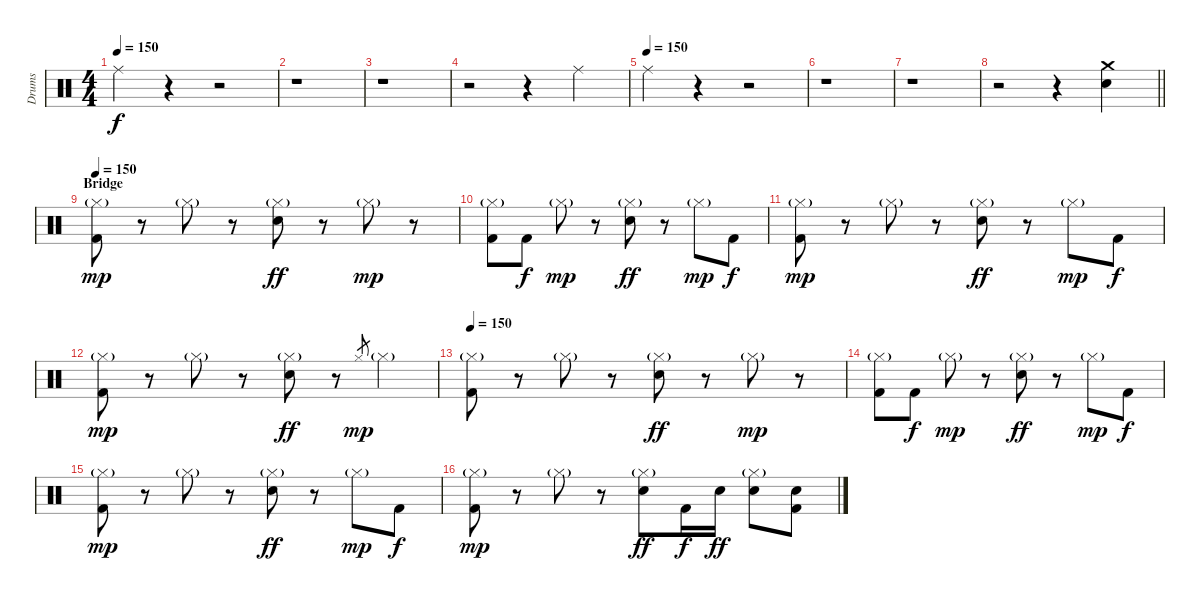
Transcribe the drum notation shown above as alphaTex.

\track ("Drums" "Drums") {instrument percussion}
\staff {score}
\articulation defaults
\ts (4 4)
\tempo 150
\clef neutral
\ks c "Ride (middle)".4{dy f}
r.4 r.2 |
r.1 |
r.1 |
r.2 r.4 "Ride (middle)".4 |
\tempo (150)
"Ride (middle)".4 r.4 r.2 |
r.1 |
r.1 |
\barLineRight lightlight
r.2 r.4 ("Crash medium (hit)" "Electric Snare (hit)").4 |
\section ("" "Bridge")
\tempo 150
("Hi-Hat (closed)"{g} "Kick (hit) 2").8{dy mp} r.8 "Hi-Hat (closed)"{g}.8 r.8 ("Hi-Hat (closed)"{g} "Electric Snare (hit)").8{dy ff} r.8 "Hi-Hat (closed)"{g}.8{dy mp} r.8 |
("Hi-Hat (closed)"{g} "Kick (hit) 2").8 "Kick (hit) 2".8{dy f} "Hi-Hat (closed)"{g}.8{dy mp} r.8 ("Hi-Hat (closed)"{g} "Electric Snare (hit)").8{dy ff} r.8 "Hi-Hat (closed)"{g}.8{dy mp} "Kick (hit) 2".8{dy f} |
("Hi-Hat (closed)"{g} "Kick (hit) 2").8{dy mp} r.8 "Hi-Hat (closed)"{g}.8 r.8 ("Hi-Hat (closed)"{g} "Electric Snare (hit)").8{dy ff} r.8 "Hi-Hat (closed)"{g}.8{dy mp} "Kick (hit) 2".8{dy f} |
("Hi-Hat (closed)"{g} "Kick (hit) 2").8{dy mp} r.8 "Hi-Hat (closed)"{g}.8 r.8 ("Hi-Hat (closed)"{g} "Electric Snare (hit)").8{dy ff} r.8 "Hi-Hat (closed)".8{gr dy mp} "Hi-Hat (closed)"{g}.4 |
\tempo 150
("Hi-Hat (closed)"{g} "Kick (hit) 2").8 r.8 "Hi-Hat (closed)"{g}.8 r.8 ("Hi-Hat (closed)"{g} "Electric Snare (hit)").8{dy ff} r.8 "Hi-Hat (closed)"{g}.8{dy mp} r.8 |
("Hi-Hat (closed)"{g} "Kick (hit) 2").8 "Kick (hit) 2".8{dy f} "Hi-Hat (closed)"{g}.8{dy mp} r.8 ("Hi-Hat (closed)"{g} "Electric Snare (hit)").8{dy ff} r.8 "Hi-Hat (closed)"{g}.8{dy mp} "Kick (hit) 2".8{dy f} |
("Hi-Hat (closed)"{g} "Kick (hit) 2").8{dy mp} r.8 "Hi-Hat (closed)"{g}.8 r.8 ("Hi-Hat (closed)"{g} "Electric Snare (hit)").8{dy ff} r.8 "Hi-Hat (closed)"{g}.8{dy mp} "Kick (hit) 2".8{dy f} |
("Hi-Hat (closed)"{g} "Kick (hit) 2").8{dy mp} r.8 "Hi-Hat (closed)"{g}.8 r.8 ("Hi-Hat (closed)"{g} "Electric Snare (hit)").8{dy ff} "Kick (hit) 2".16{dy f} "Electric Snare (hit)".16{dy ff} ("Hi-Hat (closed)"{g} "Electric Snare (hit)").8 ("Electric Snare (hit)" "Kick (hit) 2").8
